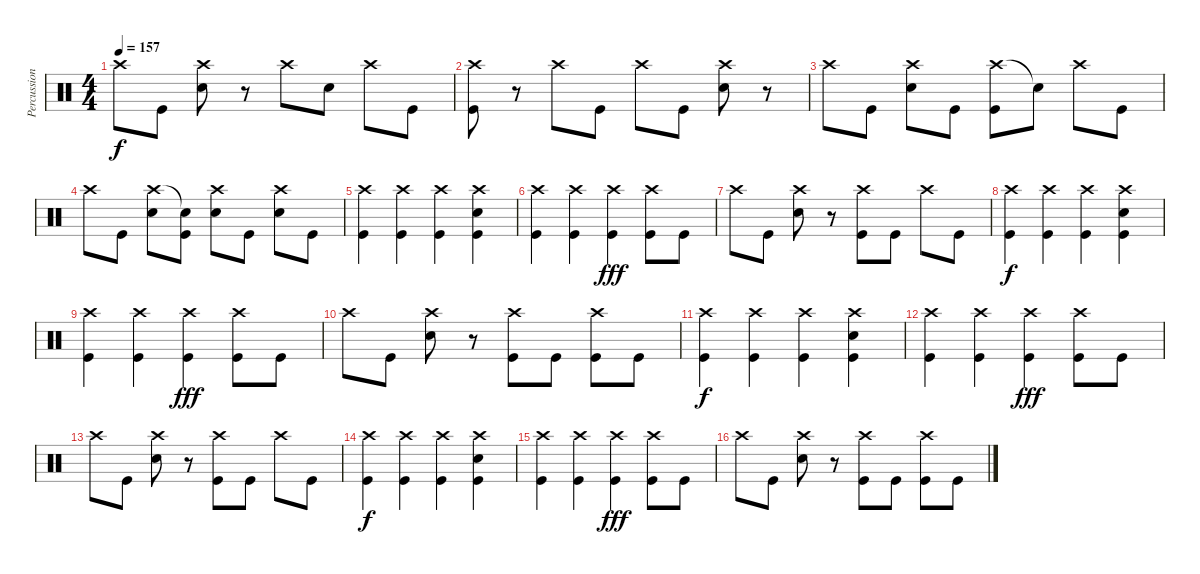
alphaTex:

\track ("Percussion" "Percussion") {instrument percussion}
\staff {score}
\articulation defaults
\ts (4 4)
\tempo 157
\clef neutral
\ks c "Crash high (hit)".8{dy f} "Kick (hit)".8
("Crash high (hit)" "Electric Snare (hit)").8 r.8 "Crash high (hit)".8 "Electric Snare (hit)".8 "Crash high (hit)".8 "Kick (hit)".8 |
("Crash high (hit)" "Kick (hit)").8 r.8 "Crash high (hit)".8 "Kick (hit)".8 "Crash high (hit)".8 "Kick (hit)".8 ("Crash high (hit)" "Electric Snare (hit)").8 r.8 |
"Crash high (hit)".8 "Kick (hit)".8 ("Crash high (hit)" "Electric Snare (hit)").8 "Kick (hit)".8 ("Crash high (hit)" "Kick (hit)").8 "Snare (hit)"{t}.8 "Crash high (hit)".8 "Kick (hit)".8 |
"Crash high (hit)".8 "Kick (hit)".8 ("Crash high (hit)" "Electric Snare (hit)").8 ("Snare (hit)"{t} "Kick (hit)").8 ("Crash high (hit)" "Electric Snare (hit)").8 "Kick (hit)".8 ("Crash high (hit)" "Electric Snare (hit)").8 "Kick (hit)".8 |
("Crash high (hit)" "Kick (hit)").4 ("Crash high (hit)" "Kick (hit)").4 ("Crash high (hit)" "Kick (hit)").4 ("Crash high (hit)" "Electric Snare (hit)" "Kick (hit)").4 |
("Crash high (hit)" "Kick (hit)").4 ("Crash high (hit)" "Kick (hit)").4 ("Crash high (hit)" "Kick (hit)").4{dy fff} ("Crash high (hit)" "Kick (hit)").8 "Kick (hit)".8 |
"Crash high (hit)".8 "Kick (hit)".8 ("Crash high (hit)" "Electric Snare (hit)").8 r.8 ("Crash high (hit)" "Kick (hit)").8 "Kick (hit)".8 "Crash high (hit)".8 "Kick (hit)".8 |
("Crash high (hit)" "Kick (hit)").4{dy f} ("Crash high (hit)" "Kick (hit)").4 ("Crash high (hit)" "Kick (hit)").4 ("Crash high (hit)" "Electric Snare (hit)" "Kick (hit)").4 |
("Crash high (hit)" "Kick (hit)").4 ("Crash high (hit)" "Kick (hit)").4 ("Crash high (hit)" "Kick (hit)").4{dy fff} ("Crash high (hit)" "Kick (hit)").8 "Kick (hit)".8 |
"Crash high (hit)".8 "Kick (hit)".8 ("Crash high (hit)" "Electric Snare (hit)").8 r.8 ("Crash high (hit)" "Kick (hit)").8 "Kick (hit)".8 ("Crash high (hit)" "Kick (hit)").8 "Kick (hit)".8 |
("Crash high (hit)" "Kick (hit)").4{dy f} ("Crash high (hit)" "Kick (hit)").4 ("Crash high (hit)" "Kick (hit)").4 ("Crash high (hit)" "Electric Snare (hit)" "Kick (hit)").4 |
("Crash high (hit)" "Kick (hit)").4 ("Crash high (hit)" "Kick (hit)").4 ("Crash high (hit)" "Kick (hit)").4{dy fff} ("Crash high (hit)" "Kick (hit)").8 "Kick (hit)".8 |
"Crash high (hit)".8 "Kick (hit)".8 ("Crash high (hit)" "Electric Snare (hit)").8 r.8 ("Crash high (hit)" "Kick (hit)").8 "Kick (hit)".8 "Crash high (hit)".8 "Kick (hit)".8 |
("Crash high (hit)" "Kick (hit)").4{dy f} ("Crash high (hit)" "Kick (hit)").4 ("Crash high (hit)" "Kick (hit)").4 ("Crash high (hit)" "Electric Snare (hit)" "Kick (hit)").4 |
("Crash high (hit)" "Kick (hit)").4 ("Crash high (hit)" "Kick (hit)").4 ("Crash high (hit)" "Kick (hit)").4{dy fff} ("Crash high (hit)" "Kick (hit)").8 "Kick (hit)".8 |
"Crash high (hit)".8 "Kick (hit)".8 ("Crash high (hit)" "Electric Snare (hit)").8 r.8 ("Crash high (hit)" "Kick (hit)").8 "Kick (hit)".8 ("Crash high (hit)" "Kick (hit)").8 "Kick (hit)".8
